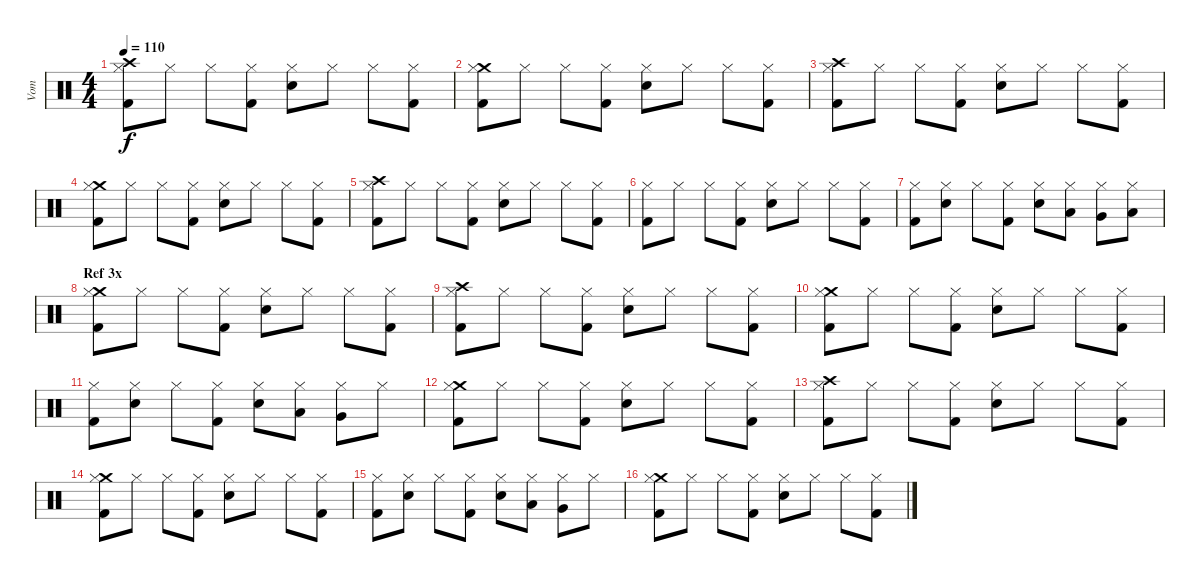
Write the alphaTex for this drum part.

\track ("Vom" "Vom") {instrument percussion}
\staff {score}
\articulation defaults
\ts (4 4)
\tempo 110
\clef neutral
\ks c
("Crash high (hit)" "Kick (hit) 2" "Hi-Hat (closed)").8{dy f} "Hi-Hat (closed)".8 "Hi-Hat (closed)".8 ("Kick (hit) 2" "Hi-Hat (closed)").8 ("Snare (hit) 2" "Hi-Hat (closed)").8 "Hi-Hat (closed)".8 "Hi-Hat (closed)".8 ("Kick (hit) 2" "Hi-Hat (closed)").8 |
("Crash medium (hit)" "Kick (hit) 2" "Hi-Hat (closed)").8 "Hi-Hat (closed)".8 "Hi-Hat (closed)".8 ("Kick (hit) 2" "Hi-Hat (closed)").8 ("Snare (hit) 2" "Hi-Hat (closed)").8 "Hi-Hat (closed)".8 "Hi-Hat (closed)".8 ("Kick (hit) 2" "Hi-Hat (closed)").8 |
("Crash high (hit)" "Kick (hit) 2" "Hi-Hat (closed)").8 "Hi-Hat (closed)".8 "Hi-Hat (closed)".8 ("Kick (hit) 2" "Hi-Hat (closed)").8 ("Snare (hit) 2" "Hi-Hat (closed)").8 "Hi-Hat (closed)".8 "Hi-Hat (closed)".8 ("Kick (hit) 2" "Hi-Hat (closed)").8 |
("Crash medium (hit)" "Kick (hit) 2" "Hi-Hat (closed)").8 "Hi-Hat (closed)".8 "Hi-Hat (closed)".8 ("Kick (hit) 2" "Hi-Hat (closed)").8 ("Snare (hit) 2" "Hi-Hat (closed)").8 "Hi-Hat (closed)".8 "Hi-Hat (closed)".8 ("Kick (hit) 2" "Hi-Hat (closed)").8 |
("Crash high (hit)" "Kick (hit) 2" "Hi-Hat (closed)").8 "Hi-Hat (closed)".8 "Hi-Hat (closed)".8 ("Kick (hit) 2" "Hi-Hat (closed)").8 ("Snare (hit) 2" "Hi-Hat (closed)").8 "Hi-Hat (closed)".8 "Hi-Hat (closed)".8 ("Kick (hit) 2" "Hi-Hat (closed)").8 |
("Kick (hit) 2" "Hi-Hat (closed)").8 "Hi-Hat (closed)".8 "Hi-Hat (closed)".8 ("Kick (hit) 2" "Hi-Hat (closed)").8 ("Snare (hit) 2" "Hi-Hat (closed)").8 "Hi-Hat (closed)".8 "Hi-Hat (closed)".8 ("Kick (hit) 2" "Hi-Hat (closed)").8 |
("Kick (hit) 2" "Hi-Hat (closed)").8 ("Snare (hit) 2" "Hi-Hat (closed)").8 "Hi-Hat (closed)".8 ("Kick (hit) 2" "Hi-Hat (closed)").8 ("Snare (hit) 2" "Hi-Hat (closed)").8 ("Low Tom (hit)" "Hi-Hat (closed)").8 ("Very Low Tom (hit)" "Hi-Hat (closed)").8 ("Low Floor Tom (hit)" "Hi-Hat (closed)").8 |
\section ("" "Ref 3x")
("Crash medium (hit)" "Kick (hit) 2" "Hi-Hat (closed)").8 "Hi-Hat (closed)".8 "Hi-Hat (closed)".8 ("Kick (hit) 2" "Hi-Hat (closed)").8 ("Snare (hit) 2" "Hi-Hat (closed)").8 "Hi-Hat (closed)".8 "Hi-Hat (closed)".8 ("Kick (hit) 2" "Hi-Hat (closed)").8 |
("Crash high (hit)" "Kick (hit) 2" "Hi-Hat (closed)").8 "Hi-Hat (closed)".8 "Hi-Hat (closed)".8 ("Kick (hit) 2" "Hi-Hat (closed)").8 ("Snare (hit) 2" "Hi-Hat (closed)").8 "Hi-Hat (closed)".8 "Hi-Hat (closed)".8 ("Kick (hit) 2" "Hi-Hat (closed)").8 |
("Crash medium (hit)" "Kick (hit) 2" "Hi-Hat (closed)").8 "Hi-Hat (closed)".8 "Hi-Hat (closed)".8 ("Kick (hit) 2" "Hi-Hat (closed)").8 ("Snare (hit) 2" "Hi-Hat (closed)").8 "Hi-Hat (closed)".8 "Hi-Hat (closed)".8 ("Kick (hit) 2" "Hi-Hat (closed)").8 |
("Kick (hit) 2" "Hi-Hat (closed)").8 ("Snare (hit) 2" "Hi-Hat (closed)").8 "Hi-Hat (closed)".8 ("Kick (hit) 2" "Hi-Hat (closed)").8 ("Snare (hit) 2" "Hi-Hat (closed)").8 ("Low Tom (hit)" "Hi-Hat (closed)").8 ("Very Low Tom (hit)" "Hi-Hat (closed)").8 "Hi-Hat (closed)".8 |
("Crash medium (hit)" "Kick (hit) 2" "Hi-Hat (closed)").8 "Hi-Hat (closed)".8 "Hi-Hat (closed)".8 ("Kick (hit) 2" "Hi-Hat (closed)").8 ("Snare (hit) 2" "Hi-Hat (closed)").8 "Hi-Hat (closed)".8 "Hi-Hat (closed)".8 ("Kick (hit) 2" "Hi-Hat (closed)").8 |
("Crash high (hit)" "Kick (hit) 2" "Hi-Hat (closed)").8 "Hi-Hat (closed)".8 "Hi-Hat (closed)".8 ("Kick (hit) 2" "Hi-Hat (closed)").8 ("Snare (hit) 2" "Hi-Hat (closed)").8 "Hi-Hat (closed)".8 "Hi-Hat (closed)".8 ("Kick (hit) 2" "Hi-Hat (closed)").8 |
("Crash medium (hit)" "Kick (hit) 2" "Hi-Hat (closed)").8 "Hi-Hat (closed)".8 "Hi-Hat (closed)".8 ("Kick (hit) 2" "Hi-Hat (closed)").8 ("Snare (hit) 2" "Hi-Hat (closed)").8 "Hi-Hat (closed)".8 "Hi-Hat (closed)".8 ("Kick (hit) 2" "Hi-Hat (closed)").8 |
("Kick (hit) 2" "Hi-Hat (closed)").8 ("Snare (hit) 2" "Hi-Hat (closed)").8 "Hi-Hat (closed)".8 ("Kick (hit) 2" "Hi-Hat (closed)").8 ("Snare (hit) 2" "Hi-Hat (closed)").8 ("Low Tom (hit)" "Hi-Hat (closed)").8 ("Very Low Tom (hit)" "Hi-Hat (closed)").8 "Hi-Hat (closed)".8 |
("Crash medium (hit)" "Kick (hit) 2" "Hi-Hat (closed)").8 "Hi-Hat (closed)".8 "Hi-Hat (closed)".8 ("Kick (hit) 2" "Hi-Hat (closed)").8 ("Snare (hit) 2" "Hi-Hat (closed)").8 "Hi-Hat (closed)".8 "Hi-Hat (closed)".8 ("Kick (hit) 2" "Hi-Hat (closed)").8
